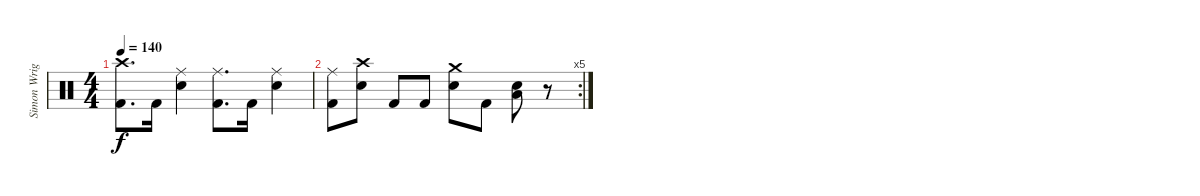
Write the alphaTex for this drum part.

\track ("Simon Wright" "Simon Wrig") {instrument percussion}
\staff {score}
\articulation defaults
\ts (4 4)
\tempo 140
\clef neutral
\ks c
("Crash high (hit)" "Kick (hit) 2").8{d dy f} "Kick (hit) 2".16 ("Ride (middle)" "Snare (hit) 2").4 ("Ride (middle)" "Kick (hit) 2").8{d} "Kick (hit) 2".16 ("Ride (middle)" "Snare (hit) 2").4 |
\rc 5
("Ride (middle)" "Kick (hit) 2").8 ("Crash high (hit)" "Snare (hit) 2").8 "Kick (hit) 2".8 "Kick (hit) 2".8 ("Crash medium (hit)" "Snare (hit) 2").8 "Kick (hit) 2".8 ("Low Tom (hit)" "Snare (hit) 2").8 r.8
